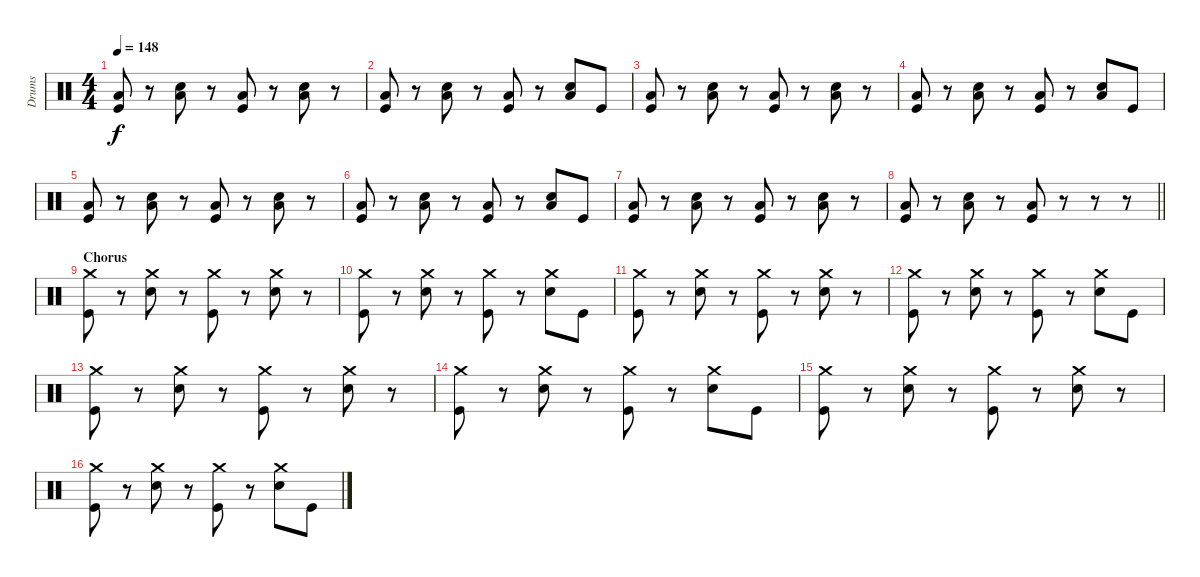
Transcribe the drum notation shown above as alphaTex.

\track ("Drums" "Drums") {instrument percussion}
\staff {score}
\articulation defaults
\ts (4 4)
\tempo 148
\clef neutral
\ks c
("Low Tom (hit)" "Kick (hit)").8{dy f} r.8 ("Low Tom (hit)" "Electric Snare (hit)").8 r.8 ("Low Tom (hit)" "Kick (hit)").8 r.8 ("Low Tom (hit)" "Electric Snare (hit)").8 r.8 |
("Low Tom (hit)" "Kick (hit)").8 r.8 ("Low Tom (hit)" "Electric Snare (hit)").8 r.8 ("Low Tom (hit)" "Kick (hit)").8 r.8 ("Low Tom (hit)" "Electric Snare (hit)").8 "Kick (hit)".8 |
("Low Tom (hit)" "Kick (hit)").8 r.8 ("Low Tom (hit)" "Electric Snare (hit)").8 r.8 ("Low Tom (hit)" "Kick (hit)").8 r.8 ("Low Tom (hit)" "Electric Snare (hit)").8 r.8 |
("Low Tom (hit)" "Kick (hit)").8 r.8 ("Low Tom (hit)" "Electric Snare (hit)").8 r.8 ("Low Tom (hit)" "Kick (hit)").8 r.8 ("Low Tom (hit)" "Electric Snare (hit)").8 "Kick (hit)".8 |
("Low Tom (hit)" "Kick (hit)").8 r.8 ("Low Tom (hit)" "Electric Snare (hit)").8 r.8 ("Low Tom (hit)" "Kick (hit)").8 r.8 ("Low Tom (hit)" "Electric Snare (hit)").8 r.8 |
("Low Tom (hit)" "Kick (hit)").8 r.8 ("Low Tom (hit)" "Electric Snare (hit)").8 r.8 ("Low Tom (hit)" "Kick (hit)").8 r.8 ("Low Tom (hit)" "Electric Snare (hit)").8 "Kick (hit)".8 |
("Low Tom (hit)" "Kick (hit)").8 r.8 ("Low Tom (hit)" "Electric Snare (hit)").8 r.8 ("Low Tom (hit)" "Kick (hit)").8 r.8 ("Low Tom (hit)" "Electric Snare (hit)").8 r.8 |
\barLineRight lightlight
("Low Tom (hit)" "Kick (hit)").8 r.8 ("Low Tom (hit)" "Electric Snare (hit)").8 r.8 ("Low Tom (hit)" "Kick (hit)").8 r.8 r.8 r.8 |
\section ("" "Chorus")
("Crash medium (hit)" "Kick (hit)").8 r.8 ("Crash medium (hit)" "Electric Snare (hit)").8 r.8 ("Crash medium (hit)" "Kick (hit)").8 r.8 ("Crash medium (hit)" "Electric Snare (hit)").8 r.8 |
("Crash medium (hit)" "Kick (hit)").8 r.8 ("Crash medium (hit)" "Electric Snare (hit)").8 r.8 ("Crash medium (hit)" "Kick (hit)").8 r.8 ("Crash medium (hit)" "Electric Snare (hit)").8 "Kick (hit)".8 |
("Crash medium (hit)" "Kick (hit)").8 r.8 ("Crash medium (hit)" "Electric Snare (hit)").8 r.8 ("Crash medium (hit)" "Kick (hit)").8 r.8 ("Crash medium (hit)" "Electric Snare (hit)").8 r.8 |
("Crash medium (hit)" "Kick (hit)").8 r.8 ("Crash medium (hit)" "Electric Snare (hit)").8 r.8 ("Crash medium (hit)" "Kick (hit)").8 r.8 ("Crash medium (hit)" "Electric Snare (hit)").8 "Kick (hit)".8 |
("Crash medium (hit)" "Kick (hit)").8 r.8 ("Crash medium (hit)" "Electric Snare (hit)").8 r.8 ("Crash medium (hit)" "Kick (hit)").8 r.8 ("Crash medium (hit)" "Electric Snare (hit)").8 r.8 |
("Crash medium (hit)" "Kick (hit)").8 r.8 ("Crash medium (hit)" "Electric Snare (hit)").8 r.8 ("Crash medium (hit)" "Kick (hit)").8 r.8 ("Crash medium (hit)" "Electric Snare (hit)").8 "Kick (hit)".8 |
("Crash medium (hit)" "Kick (hit)").8 r.8 ("Crash medium (hit)" "Electric Snare (hit)").8 r.8 ("Crash medium (hit)" "Kick (hit)").8 r.8 ("Crash medium (hit)" "Electric Snare (hit)").8 r.8 |
("Crash medium (hit)" "Kick (hit)").8 r.8 ("Crash medium (hit)" "Electric Snare (hit)").8 r.8 ("Crash medium (hit)" "Kick (hit)").8 r.8 ("Crash medium (hit)" "Electric Snare (hit)").8 "Kick (hit)".8
